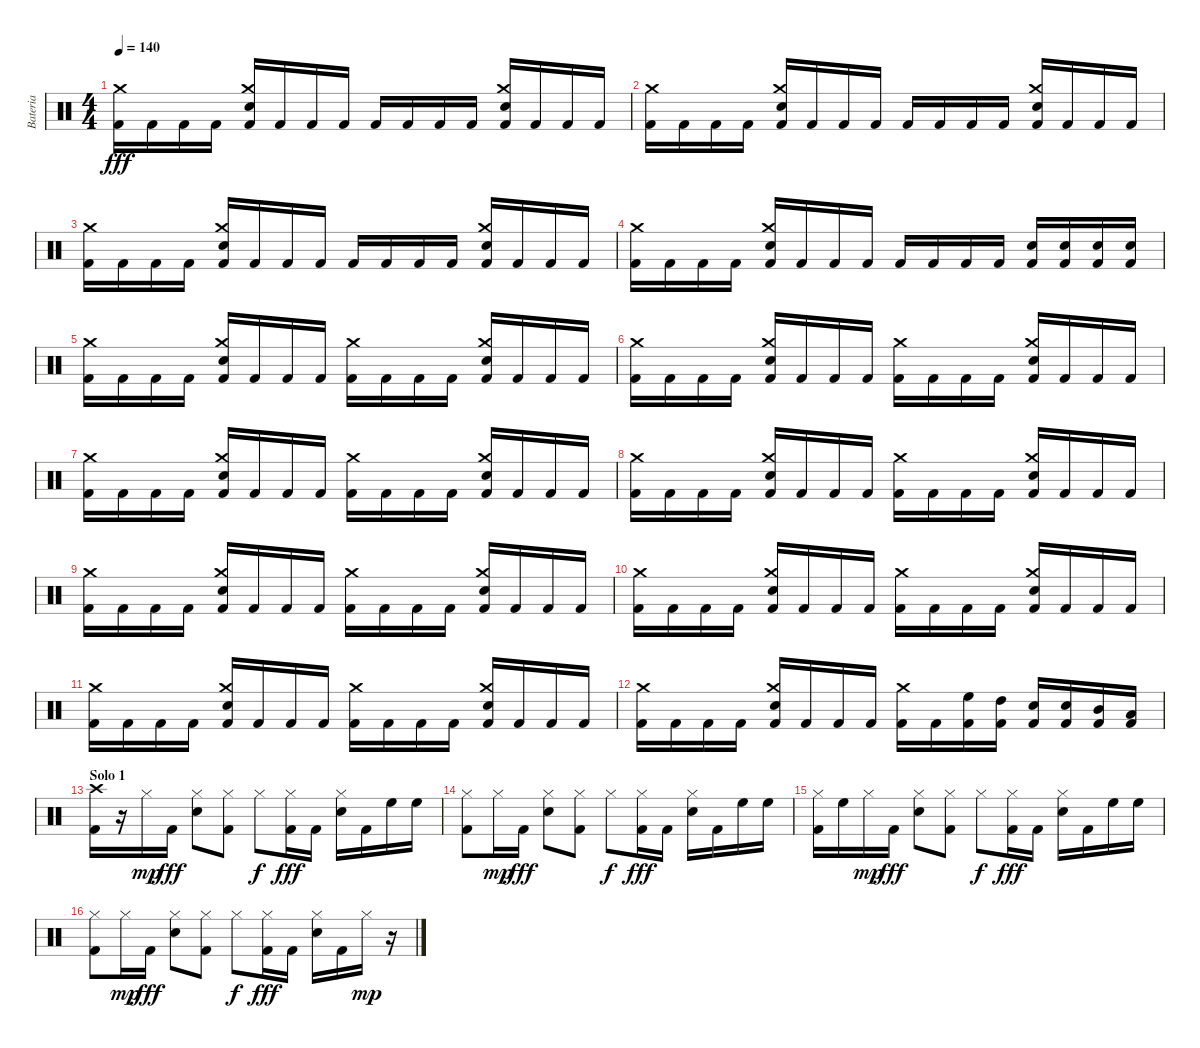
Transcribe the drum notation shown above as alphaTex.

\track ("Bateria" "Bateria") {instrument percussion}
\staff {score}
\articulation defaults
\ts (4 4)
\tempo 140
\clef neutral
\ks c
("Kick (hit) 2" "Crash medium (hit)").16{dy fff} "Kick (hit) 2".16 "Kick (hit) 2".16 "Kick (hit) 2".16 ("Kick (hit) 2" "Metronome (bell)" "Crash medium (hit)").16 "Kick (hit) 2".16 "Kick (hit) 2".16 "Kick (hit) 2".16 "Kick (hit) 2".16 "Kick (hit) 2".16 "Kick (hit) 2".16 "Kick (hit) 2".16 ("Kick (hit) 2" "Metronome (bell)" "Crash medium (hit)").16 "Kick (hit) 2".16 "Kick (hit) 2".16 "Kick (hit) 2".16 |
("Kick (hit) 2" "Crash medium (hit)").16 "Kick (hit) 2".16 "Kick (hit) 2".16 "Kick (hit) 2".16 ("Kick (hit) 2" "Metronome (bell)" "Crash medium (hit)").16 "Kick (hit) 2".16 "Kick (hit) 2".16 "Kick (hit) 2".16 "Kick (hit) 2".16 "Kick (hit) 2".16 "Kick (hit) 2".16 "Kick (hit) 2".16 ("Kick (hit) 2" "Metronome (bell)" "Crash medium (hit)").16 "Kick (hit) 2".16 "Kick (hit) 2".16 "Kick (hit) 2".16 |
("Kick (hit) 2" "Crash medium (hit)").16 "Kick (hit) 2".16 "Kick (hit) 2".16 "Kick (hit) 2".16 ("Kick (hit) 2" "Metronome (bell)" "Crash medium (hit)").16 "Kick (hit) 2".16 "Kick (hit) 2".16 "Kick (hit) 2".16 "Kick (hit) 2".16 "Kick (hit) 2".16 "Kick (hit) 2".16 "Kick (hit) 2".16 ("Kick (hit) 2" "Metronome (bell)" "Crash medium (hit)").16 "Kick (hit) 2".16 "Kick (hit) 2".16 "Kick (hit) 2".16 |
("Kick (hit) 2" "Crash medium (hit)").16 "Kick (hit) 2".16 "Kick (hit) 2".16 "Kick (hit) 2".16 ("Kick (hit) 2" "Metronome (bell)" "Crash medium (hit)").16 "Kick (hit) 2".16 "Kick (hit) 2".16 "Kick (hit) 2".16 "Kick (hit) 2".16 "Kick (hit) 2".16 "Kick (hit) 2".16 "Kick (hit) 2".16 ("Kick (hit) 2" "Metronome (bell)").16 ("Kick (hit) 2" "Metronome (bell)").16 ("Kick (hit) 2" "Metronome (bell)").16 ("Kick (hit) 2" "Metronome (bell)").16 |
("Kick (hit) 2" "Crash medium (hit)").16 "Kick (hit) 2".16 "Kick (hit) 2".16 "Kick (hit) 2".16 ("Kick (hit) 2" "Metronome (bell)" "Crash medium (hit)").16 "Kick (hit) 2".16 "Kick (hit) 2".16 "Kick (hit) 2".16 ("Kick (hit) 2" "Crash medium (hit)").16 "Kick (hit) 2".16 "Kick (hit) 2".16 "Kick (hit) 2".16 ("Kick (hit) 2" "Metronome (bell)" "Crash medium (hit)").16 "Kick (hit) 2".16 "Kick (hit) 2".16 "Kick (hit) 2".16 |
("Kick (hit) 2" "Crash medium (hit)").16 "Kick (hit) 2".16 "Kick (hit) 2".16 "Kick (hit) 2".16 ("Kick (hit) 2" "Metronome (bell)" "Crash medium (hit)").16 "Kick (hit) 2".16 "Kick (hit) 2".16 "Kick (hit) 2".16 ("Kick (hit) 2" "Crash medium (hit)").16 "Kick (hit) 2".16 "Kick (hit) 2".16 "Kick (hit) 2".16 ("Kick (hit) 2" "Metronome (bell)" "Crash medium (hit)").16 "Kick (hit) 2".16 "Kick (hit) 2".16 "Kick (hit) 2".16 |
("Kick (hit) 2" "Crash medium (hit)").16 "Kick (hit) 2".16 "Kick (hit) 2".16 "Kick (hit) 2".16 ("Kick (hit) 2" "Metronome (bell)" "Crash medium (hit)").16 "Kick (hit) 2".16 "Kick (hit) 2".16 "Kick (hit) 2".16 ("Kick (hit) 2" "Crash medium (hit)").16 "Kick (hit) 2".16 "Kick (hit) 2".16 "Kick (hit) 2".16 ("Kick (hit) 2" "Metronome (bell)" "Crash medium (hit)").16 "Kick (hit) 2".16 "Kick (hit) 2".16 "Kick (hit) 2".16 |
("Kick (hit) 2" "Crash medium (hit)").16 "Kick (hit) 2".16 "Kick (hit) 2".16 "Kick (hit) 2".16 ("Kick (hit) 2" "Metronome (bell)" "Crash medium (hit)").16 "Kick (hit) 2".16 "Kick (hit) 2".16 "Kick (hit) 2".16 ("Kick (hit) 2" "Crash medium (hit)").16 "Kick (hit) 2".16 "Kick (hit) 2".16 "Kick (hit) 2".16 ("Kick (hit) 2" "Metronome (bell)" "Crash medium (hit)").16 "Kick (hit) 2".16 "Kick (hit) 2".16 "Kick (hit) 2".16 |
("Kick (hit) 2" "Crash medium (hit)").16 "Kick (hit) 2".16 "Kick (hit) 2".16 "Kick (hit) 2".16 ("Kick (hit) 2" "Metronome (bell)" "Crash medium (hit)").16 "Kick (hit) 2".16 "Kick (hit) 2".16 "Kick (hit) 2".16 ("Kick (hit) 2" "Crash medium (hit)").16 "Kick (hit) 2".16 "Kick (hit) 2".16 "Kick (hit) 2".16 ("Kick (hit) 2" "Metronome (bell)" "Crash medium (hit)").16 "Kick (hit) 2".16 "Kick (hit) 2".16 "Kick (hit) 2".16 |
("Kick (hit) 2" "Crash medium (hit)").16 "Kick (hit) 2".16 "Kick (hit) 2".16 "Kick (hit) 2".16 ("Kick (hit) 2" "Metronome (bell)" "Crash medium (hit)").16 "Kick (hit) 2".16 "Kick (hit) 2".16 "Kick (hit) 2".16 ("Kick (hit) 2" "Crash medium (hit)").16 "Kick (hit) 2".16 "Kick (hit) 2".16 "Kick (hit) 2".16 ("Kick (hit) 2" "Metronome (bell)" "Crash medium (hit)").16 "Kick (hit) 2".16 "Kick (hit) 2".16 "Kick (hit) 2".16 |
("Kick (hit) 2" "Crash medium (hit)").16 "Kick (hit) 2".16 "Kick (hit) 2".16 "Kick (hit) 2".16 ("Kick (hit) 2" "Metronome (bell)" "Crash medium (hit)").16 "Kick (hit) 2".16 "Kick (hit) 2".16 "Kick (hit) 2".16 ("Kick (hit) 2" "Crash medium (hit)").16 "Kick (hit) 2".16 "Kick (hit) 2".16 "Kick (hit) 2".16 ("Kick (hit) 2" "Metronome (bell)" "Crash medium (hit)").16 "Kick (hit) 2".16 "Kick (hit) 2".16 "Kick (hit) 2".16 |
("Kick (hit) 2" "Crash medium (hit)").16 "Kick (hit) 2".16 "Kick (hit) 2".16 "Kick (hit) 2".16 ("Kick (hit) 2" "Metronome (bell)" "Crash medium (hit)").16 "Kick (hit) 2".16 "Kick (hit) 2".16 "Kick (hit) 2".16 ("Kick (hit) 2" "Crash medium (hit)").16 "Kick (hit) 2".16 ("Kick (hit) 2" "High Floor Tom (hit)").16 ("Kick (hit) 2" "High Tom (hit)").16 ("Kick (hit) 2" "Metronome (bell)").16 ("Kick (hit) 2" "Metronome (bell)").16 ("Kick (hit) 2" "Mid Tom (hit)").16 ("Kick (hit) 2" "Low Tom (hit)").16 |
\section ("" "Solo 1")
("Crash high (hit)" "Kick (hit) 2").16 r.16 "Hi-Hat (closed)".16{dy mp} "Kick (hit) 2".16{dy fff} ("Hi-Hat (closed)" "Electric Snare (hit)").8 ("Hi-Hat (closed)" "Kick (hit) 2").8 "Hi-Hat (closed)".8{dy f} ("Hi-Hat (closed)" "Kick (hit) 2").16{dy fff} "Kick (hit) 2".16 ("Hi-Hat (closed)" "Electric Snare (hit)").16 "Kick (hit) 2".16 "High Floor Tom (hit)".16 "High Floor Tom (hit)".16 |
("Hi-Hat (closed)" "Kick (hit) 2").8 "Hi-Hat (closed)".16{dy mp} "Kick (hit) 2".16{dy fff} ("Hi-Hat (closed)" "Electric Snare (hit)").8 ("Hi-Hat (closed)" "Kick (hit) 2").8 "Hi-Hat (closed)".8{dy f} ("Hi-Hat (closed)" "Kick (hit) 2").16{dy fff} "Kick (hit) 2".16 ("Hi-Hat (closed)" "Electric Snare (hit)").16 "Kick (hit) 2".16 "High Floor Tom (hit)".16 "High Floor Tom (hit)".16 |
("Hi-Hat (closed)" "Kick (hit) 2").16 "High Floor Tom (hit)".16 "Hi-Hat (closed)".16{dy mp} "Kick (hit) 2".16{dy fff} ("Hi-Hat (closed)" "Electric Snare (hit)").8 ("Hi-Hat (closed)" "Kick (hit) 2").8 "Hi-Hat (closed)".8{dy f} ("Hi-Hat (closed)" "Kick (hit) 2").16{dy fff} "Kick (hit) 2".16 ("Hi-Hat (closed)" "Electric Snare (hit)").16 "Kick (hit) 2".16 "High Floor Tom (hit)".16 "High Floor Tom (hit)".16 |
("Hi-Hat (closed)" "Kick (hit) 2").8 "Hi-Hat (closed)".16{dy mp} "Kick (hit) 2".16{dy fff} ("Hi-Hat (closed)" "Electric Snare (hit)").8 ("Hi-Hat (closed)" "Kick (hit) 2").8 "Hi-Hat (closed)".8{dy f} ("Hi-Hat (closed)" "Kick (hit) 2").16{dy fff} "Kick (hit) 2".16 ("Hi-Hat (closed)" "Electric Snare (hit)").16 "Kick (hit) 2".16 "Hi-Hat (closed)".16{dy mp} r.16
